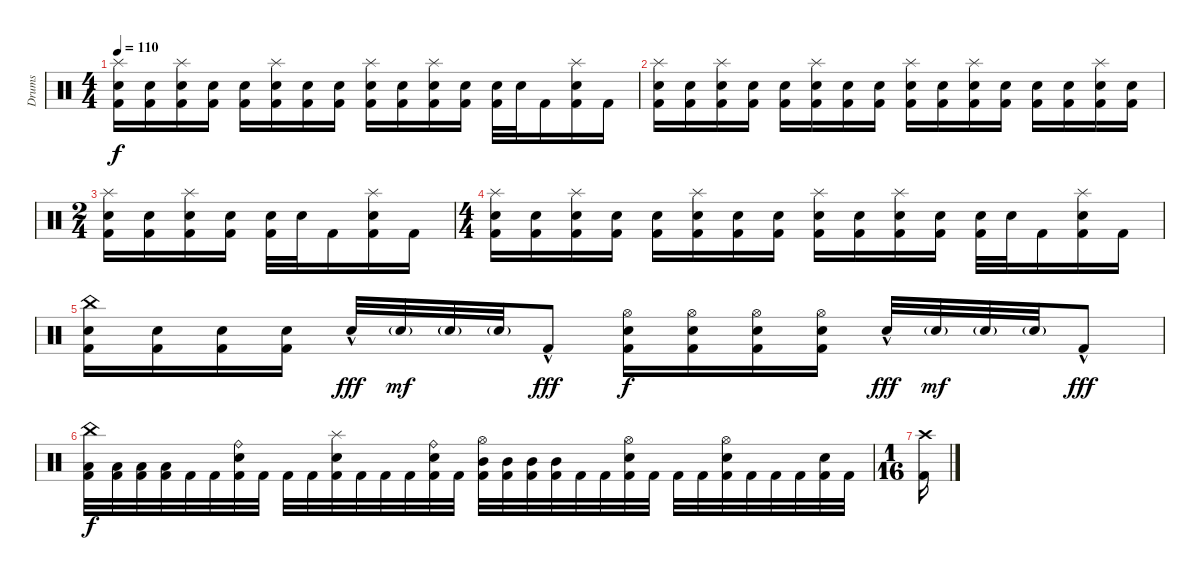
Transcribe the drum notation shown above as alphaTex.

\track ("Drums " "Drums ") {instrument percussion}
\staff {score}
\articulation defaults
\ts (4 4)
\tempo 110
\clef neutral
\ks c
("Splash (hit)" "Electric Snare (hit)" "Kick (hit) 2").16{dy f} ("Electric Snare (hit)" "Kick (hit) 2").16 ("Splash (hit)" "Electric Snare (hit)" "Kick (hit) 2").16 ("Electric Snare (hit)" "Kick (hit) 2").16 ("Electric Snare (hit)" "Kick (hit) 2").16 ("Splash (hit)" "Electric Snare (hit)" "Kick (hit) 2").16 ("Electric Snare (hit)" "Kick (hit) 2").16 ("Electric Snare (hit)" "Kick (hit) 2").16 ("Splash (hit)" "Electric Snare (hit)" "Kick (hit) 2").16 ("Electric Snare (hit)" "Kick (hit) 2").16 ("Splash (hit)" "Electric Snare (hit)" "Kick (hit) 2").16 ("Electric Snare (hit)" "Kick (hit) 2").16 ("Electric Snare (hit)" "Kick (hit) 2").32 "Electric Snare (hit)".32 "Kick (hit) 2".16 ("Splash (hit)" "Electric Snare (hit)" "Kick (hit) 2").16 "Kick (hit) 2".16 |
("Splash (hit)" "Electric Snare (hit)" "Kick (hit) 2").16 ("Electric Snare (hit)" "Kick (hit) 2").16 ("Splash (hit)" "Electric Snare (hit)" "Kick (hit) 2").16 ("Electric Snare (hit)" "Kick (hit) 2").16 ("Electric Snare (hit)" "Kick (hit) 2").16 ("Splash (hit)" "Electric Snare (hit)" "Kick (hit) 2").16 ("Electric Snare (hit)" "Kick (hit) 2").16 ("Electric Snare (hit)" "Kick (hit) 2").16 ("Splash (hit)" "Electric Snare (hit)" "Kick (hit) 2").16 ("Electric Snare (hit)" "Kick (hit) 2").16 ("Splash (hit)" "Electric Snare (hit)" "Kick (hit) 2").16 ("Electric Snare (hit)" "Kick (hit) 2").16 ("Electric Snare (hit)" "Kick (hit) 2").16 ("Electric Snare (hit)" "Kick (hit) 2").16 ("Splash (hit)" "Electric Snare (hit)" "Kick (hit) 2").16 ("Electric Snare (hit)" "Kick (hit) 2").16 |
\ts (2 4)
("Splash (hit)" "Electric Snare (hit)" "Kick (hit) 2").16 ("Electric Snare (hit)" "Kick (hit) 2").16 ("Splash (hit)" "Electric Snare (hit)" "Kick (hit) 2").16 ("Electric Snare (hit)" "Kick (hit) 2").16 ("Electric Snare (hit)" "Kick (hit) 2").32 "Electric Snare (hit)".32 "Kick (hit) 2".16 ("Splash (hit)" "Electric Snare (hit)" "Kick (hit) 2").16 "Kick (hit) 2".16 |
\ts (4 4)
("Splash (hit)" "Electric Snare (hit)" "Kick (hit) 2").16 ("Electric Snare (hit)" "Kick (hit) 2").16 ("Splash (hit)" "Electric Snare (hit)" "Kick (hit) 2").16 ("Electric Snare (hit)" "Kick (hit) 2").16 ("Electric Snare (hit)" "Kick (hit) 2").16 ("Splash (hit)" "Electric Snare (hit)" "Kick (hit) 2").16 ("Electric Snare (hit)" "Kick (hit) 2").16 ("Electric Snare (hit)" "Kick (hit) 2").16 ("Splash (hit)" "Electric Snare (hit)" "Kick (hit) 2").16 ("Electric Snare (hit)" "Kick (hit) 2").16 ("Splash (hit)" "Electric Snare (hit)" "Kick (hit) 2").16 ("Electric Snare (hit)" "Kick (hit) 2").16 ("Electric Snare (hit)" "Kick (hit) 2").32 "Electric Snare (hit)".32 "Kick (hit) 2".16 ("Splash (hit)" "Electric Snare (hit)" "Kick (hit) 2").16 "Kick (hit) 2".16 |
("China (hit)" "Electric Snare (hit)" "Kick (hit) 2").16 ("Electric Snare (hit)" "Kick (hit) 2").16 ("Electric Snare (hit)" "Kick (hit) 2").16 ("Electric Snare (hit)" "Kick (hit) 2").16 "Electric Snare (hit)"{hac}.32{dy fff} "Electric Snare (hit)"{g}.32{dy mf} "Electric Snare (hit)"{g}.32 "Electric Snare (hit)"{g}.32 "Kick (hit) 2"{hac}.8{dy fff} ("Hi-Hat (open)" "Electric Snare (hit)" "Kick (hit) 2").16{dy f} ("Hi-Hat (open)" "Electric Snare (hit)" "Kick (hit) 2").16 ("Hi-Hat (open)" "Electric Snare (hit)" "Kick (hit) 2").16 ("Hi-Hat (open)" "Electric Snare (hit)" "Kick (hit) 2").16 "Electric Snare (hit)"{hac}.32{dy fff} "Electric Snare (hit)"{g}.32{dy mf} "Electric Snare (hit)"{g}.32 "Electric Snare (hit)"{g}.32 "Kick (hit) 2"{hac}.8{dy fff} |
("China (hit)" "Low Tom (hit)" "Kick (hit) 2").32{dy f} ("Low Tom (hit)" "Kick (hit) 2").32 ("Low Tom (hit)" "Kick (hit) 2").32 ("Low Tom (hit)" "Kick (hit) 2").32 "Kick (hit) 2".32 "Kick (hit) 2".32 ("Ride (bell)" "Electric Snare (hit)" "Kick (hit) 2").32 "Kick (hit) 2".32 "Kick (hit) 2".32 "Kick (hit) 2".32 ("Splash (hit)" "Electric Snare (hit)" "Kick (hit) 2").32 "Kick (hit) 2".32 "Kick (hit) 2".32 "Kick (hit) 2".32 ("Ride (bell)" "Electric Snare (hit)" "Kick (hit) 2").32 "Kick (hit) 2".32 ("Hi-Hat (open)" "Mid Tom (hit)" "Kick (hit) 2").32 ("Mid Tom (hit)" "Kick (hit) 2").32 ("Mid Tom (hit)" "Kick (hit) 2").32 ("Mid Tom (hit)" "Kick (hit) 2").32 "Kick (hit) 2".32 "Kick (hit) 2".32 ("Hi-Hat (open)" "Electric Snare (hit)" "Kick (hit) 2").32 "Kick (hit) 2".32 "Kick (hit) 2".32 "Kick (hit) 2".32 ("Hi-Hat (open)" "Electric Snare (hit)" "Kick (hit) 2").32 "Kick (hit) 2".32 "Kick (hit) 2".32 "Kick (hit) 2".32 ("Electric Snare (hit)" "Kick (hit) 2").32 "Kick (hit) 2".32 |
\ts (1 16)
("Crash high (hit)" "Kick (hit) 2").16
